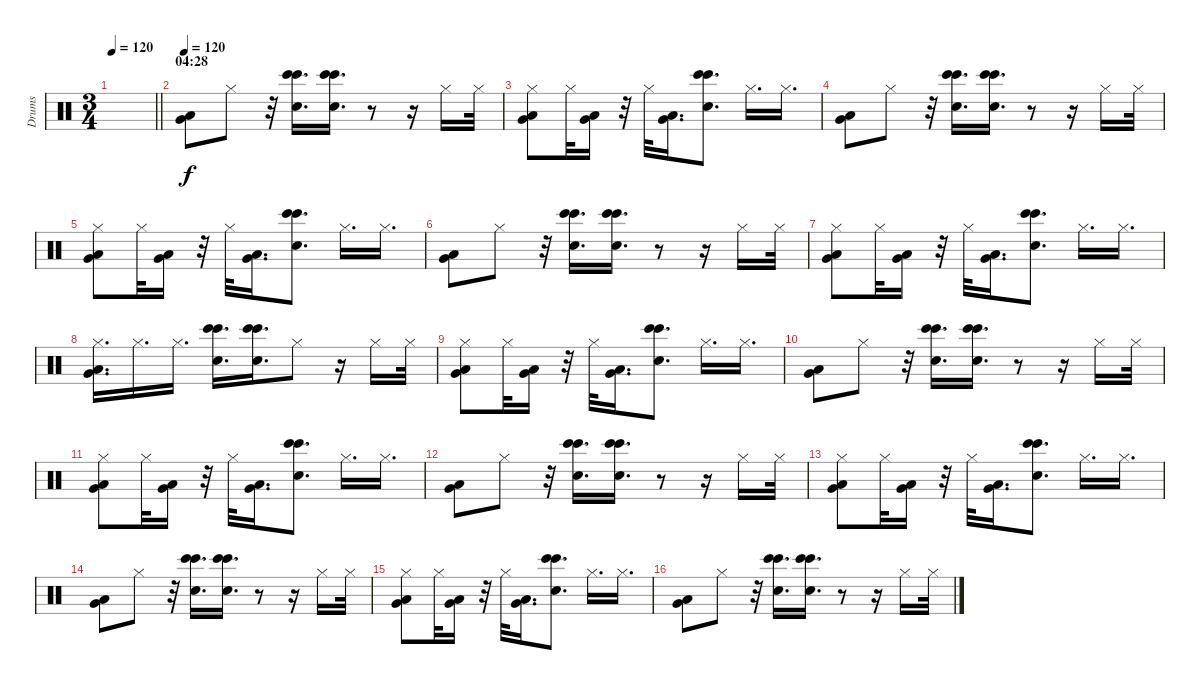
\track ("Drums" "Drums") {instrument percussion}
\staff {score}
\articulation defaults
\ts (3 4)
\tempo 120
\clef neutral
\barLineRight lightlight
\ks c
|
\section ("" "04:28")
\tempo 120
("Very Low Tom (hit)" "Low Floor Tom (hit)").8{volume 11} "Hi-Hat (closed)".8 r.32 ("Bongo High (hit)" "Electric Snare (hit)" "Bongo High (hit)").16{d} ("Bongo High (hit)" "Electric Snare (hit)" "Bongo High (hit)").16{d} r.8 r.16 "Hi-Hat (closed)".16 "Hi-Hat (closed)".32 |
("Hi-Hat (closed)" "Very Low Tom (hit)" "Low Floor Tom (hit)").8 "Hi-Hat (closed)".32 ("Very Low Tom (hit)" "Low Floor Tom (hit)").16 r.32 "Hi-Hat (closed)".32 ("Very Low Tom (hit)" "Low Floor Tom (hit)").16{d} ("Bongo High (hit)" "Electric Snare (hit)" "Bongo High (hit)").8{d} "Hi-Hat (closed)".16{d} "Hi-Hat (closed)".16{d} |
("Very Low Tom (hit)" "Low Floor Tom (hit)").8 "Hi-Hat (closed)".8 r.32 ("Bongo High (hit)" "Electric Snare (hit)" "Bongo High (hit)").16{d} ("Bongo High (hit)" "Electric Snare (hit)" "Bongo High (hit)").16{d} r.8 r.16 "Hi-Hat (closed)".16 "Hi-Hat (closed)".32 |
("Hi-Hat (closed)" "Very Low Tom (hit)" "Low Floor Tom (hit)").8 "Hi-Hat (closed)".32 ("Very Low Tom (hit)" "Low Floor Tom (hit)").16 r.32 "Hi-Hat (closed)".32 ("Very Low Tom (hit)" "Low Floor Tom (hit)").16{d} ("Bongo High (hit)" "Electric Snare (hit)" "Bongo High (hit)").8{d} "Hi-Hat (closed)".16{d} "Hi-Hat (closed)".16{d} |
("Very Low Tom (hit)" "Low Floor Tom (hit)").8 "Hi-Hat (closed)".8 r.32 ("Bongo High (hit)" "Electric Snare (hit)" "Bongo High (hit)").16{d} ("Bongo High (hit)" "Electric Snare (hit)" "Bongo High (hit)").16{d} r.8 r.16 "Hi-Hat (closed)".16 "Hi-Hat (closed)".32 |
("Hi-Hat (closed)" "Very Low Tom (hit)" "Low Floor Tom (hit)").8 "Hi-Hat (closed)".32 ("Very Low Tom (hit)" "Low Floor Tom (hit)").16 r.32 "Hi-Hat (closed)".32 ("Very Low Tom (hit)" "Low Floor Tom (hit)").16{d} ("Bongo High (hit)" "Electric Snare (hit)" "Bongo High (hit)").8{d} "Hi-Hat (closed)".16{d} "Hi-Hat (closed)".16{d} |
("Hi-Hat (closed)" "Very Low Tom (hit)" "Low Floor Tom (hit)").16{d} "Hi-Hat (closed)".16{d} "Hi-Hat (closed)".16{d} ("Bongo High (hit)" "Electric Snare (hit)" "Bongo High (hit)").16{d} ("Bongo High (hit)" "Electric Snare (hit)" "Bongo High (hit)").16{d} "Hi-Hat (closed)".8 r.16 "Hi-Hat (closed)".16 "Hi-Hat (closed)".32 |
("Hi-Hat (closed)" "Very Low Tom (hit)" "Low Floor Tom (hit)").8 "Hi-Hat (closed)".32 ("Very Low Tom (hit)" "Low Floor Tom (hit)").16 r.32 "Hi-Hat (closed)".32 ("Very Low Tom (hit)" "Low Floor Tom (hit)").16{d} ("Bongo High (hit)" "Electric Snare (hit)" "Bongo High (hit)").8{d} "Hi-Hat (closed)".16{d} "Hi-Hat (closed)".16{d} |
("Very Low Tom (hit)" "Low Floor Tom (hit)").8 "Hi-Hat (closed)".8 r.32 ("Bongo High (hit)" "Electric Snare (hit)" "Bongo High (hit)").16{d} ("Bongo High (hit)" "Electric Snare (hit)" "Bongo High (hit)").16{d} r.8 r.16 "Hi-Hat (closed)".16 "Hi-Hat (closed)".32 |
("Hi-Hat (closed)" "Very Low Tom (hit)" "Low Floor Tom (hit)").8 "Hi-Hat (closed)".32 ("Very Low Tom (hit)" "Low Floor Tom (hit)").16 r.32 "Hi-Hat (closed)".32 ("Very Low Tom (hit)" "Low Floor Tom (hit)").16{d} ("Bongo High (hit)" "Electric Snare (hit)" "Bongo High (hit)").8{d} "Hi-Hat (closed)".16{d} "Hi-Hat (closed)".16{d} |
("Very Low Tom (hit)" "Low Floor Tom (hit)").8 "Hi-Hat (closed)".8 r.32 ("Bongo High (hit)" "Electric Snare (hit)" "Bongo High (hit)").16{d} ("Bongo High (hit)" "Electric Snare (hit)" "Bongo High (hit)").16{d} r.8 r.16 "Hi-Hat (closed)".16 "Hi-Hat (closed)".32 |
("Hi-Hat (closed)" "Very Low Tom (hit)" "Low Floor Tom (hit)").8 "Hi-Hat (closed)".32 ("Very Low Tom (hit)" "Low Floor Tom (hit)").16 r.32 "Hi-Hat (closed)".32 ("Very Low Tom (hit)" "Low Floor Tom (hit)").16{d} ("Bongo High (hit)" "Electric Snare (hit)" "Bongo High (hit)").8{d} "Hi-Hat (closed)".16{d} "Hi-Hat (closed)".16{d} |
("Very Low Tom (hit)" "Low Floor Tom (hit)").8 "Hi-Hat (closed)".8 r.32 ("Bongo High (hit)" "Electric Snare (hit)" "Bongo High (hit)").16{d} ("Bongo High (hit)" "Electric Snare (hit)" "Bongo High (hit)").16{d} r.8 r.16 "Hi-Hat (closed)".16 "Hi-Hat (closed)".32 |
("Hi-Hat (closed)" "Very Low Tom (hit)" "Low Floor Tom (hit)").8 "Hi-Hat (closed)".32 ("Very Low Tom (hit)" "Low Floor Tom (hit)").16 r.32 "Hi-Hat (closed)".32 ("Very Low Tom (hit)" "Low Floor Tom (hit)").16{d} ("Bongo High (hit)" "Electric Snare (hit)" "Bongo High (hit)").8{d} "Hi-Hat (closed)".16{d} "Hi-Hat (closed)".16{d} |
("Very Low Tom (hit)" "Low Floor Tom (hit)").8 "Hi-Hat (closed)".8 r.32 ("Bongo High (hit)" "Electric Snare (hit)" "Bongo High (hit)").16{d} ("Bongo High (hit)" "Electric Snare (hit)" "Bongo High (hit)").16{d} r.8 r.16 "Hi-Hat (closed)".16 "Hi-Hat (closed)".32
